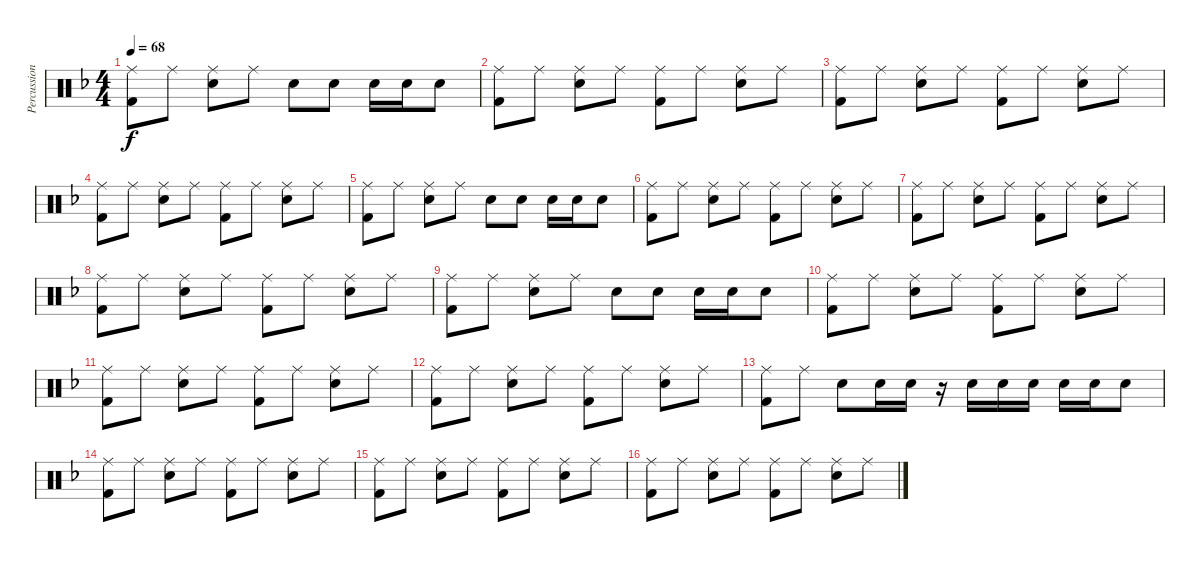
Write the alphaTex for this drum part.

\track ("Percussion" "Percussion") {instrument percussion}
\staff {score}
\articulation defaults
\ts (4 4)
\tempo 68
\clef neutral
\ks f
("Ride (middle)" "Kick (hit) 2").8{dy f} "Ride (middle)".8 ("Ride (middle)" "Snare (hit) 2").8 "Ride (middle)".8 "Snare (hit) 2".8 "Snare (hit) 2".8 "Snare (hit) 2".16 "Snare (hit) 2".16 "Snare (hit) 2".8 |
("Ride (middle)" "Kick (hit) 2").8 "Ride (middle)".8 ("Ride (middle)" "Snare (hit) 2").8 "Ride (middle)".8 ("Ride (middle)" "Kick (hit) 2").8 "Ride (middle)".8 ("Ride (middle)" "Snare (hit) 2").8 "Ride (middle)".8 |
("Ride (middle)" "Kick (hit) 2").8 "Ride (middle)".8 ("Ride (middle)" "Snare (hit) 2").8 "Ride (middle)".8 ("Ride (middle)" "Kick (hit) 2").8 "Ride (middle)".8 ("Ride (middle)" "Snare (hit) 2").8 "Ride (middle)".8 |
("Ride (middle)" "Kick (hit) 2").8 "Ride (middle)".8 ("Ride (middle)" "Snare (hit) 2").8 "Ride (middle)".8 ("Ride (middle)" "Kick (hit) 2").8 "Ride (middle)".8 ("Ride (middle)" "Snare (hit) 2").8 "Ride (middle)".8 |
("Ride (middle)" "Kick (hit) 2").8 "Ride (middle)".8 ("Ride (middle)" "Snare (hit) 2").8 "Ride (middle)".8 "Snare (hit) 2".8 "Snare (hit) 2".8 "Snare (hit) 2".16 "Snare (hit) 2".16 "Snare (hit) 2".8 |
("Ride (middle)" "Kick (hit) 2").8 "Ride (middle)".8 ("Ride (middle)" "Snare (hit) 2").8 "Ride (middle)".8 ("Ride (middle)" "Kick (hit) 2").8 "Ride (middle)".8 ("Ride (middle)" "Snare (hit) 2").8 "Ride (middle)".8 |
("Ride (middle)" "Kick (hit) 2").8 "Ride (middle)".8 ("Ride (middle)" "Snare (hit) 2").8 "Ride (middle)".8 ("Ride (middle)" "Kick (hit) 2").8 "Ride (middle)".8 ("Ride (middle)" "Snare (hit) 2").8 "Ride (middle)".8 |
("Ride (middle)" "Kick (hit) 2").8 "Ride (middle)".8 ("Ride (middle)" "Snare (hit) 2").8 "Ride (middle)".8 ("Ride (middle)" "Kick (hit) 2").8 "Ride (middle)".8 ("Ride (middle)" "Snare (hit) 2").8 "Ride (middle)".8 |
("Ride (middle)" "Kick (hit) 2").8 "Ride (middle)".8 ("Ride (middle)" "Snare (hit) 2").8 "Ride (middle)".8 "Snare (hit) 2".8 "Snare (hit) 2".8 "Snare (hit) 2".16 "Snare (hit) 2".16 "Snare (hit) 2".8 |
("Ride (middle)" "Kick (hit) 2").8 "Ride (middle)".8 ("Ride (middle)" "Snare (hit) 2").8 "Ride (middle)".8 ("Ride (middle)" "Kick (hit) 2").8 "Ride (middle)".8 ("Ride (middle)" "Snare (hit) 2").8 "Ride (middle)".8 |
("Ride (middle)" "Kick (hit) 2").8 "Ride (middle)".8 ("Ride (middle)" "Snare (hit) 2").8 "Ride (middle)".8 ("Ride (middle)" "Kick (hit) 2").8 "Ride (middle)".8 ("Ride (middle)" "Snare (hit) 2").8 "Ride (middle)".8 |
("Ride (middle)" "Kick (hit) 2").8 "Ride (middle)".8 ("Ride (middle)" "Snare (hit) 2").8 "Ride (middle)".8 ("Ride (middle)" "Kick (hit) 2").8 "Ride (middle)".8 ("Ride (middle)" "Snare (hit) 2").8 "Ride (middle)".8 |
("Ride (middle)" "Kick (hit) 2").8 "Ride (middle)".8 "Snare (hit) 2".8 "Snare (hit) 2".16 "Snare (hit) 2".16 r.16 "Snare (hit) 2".16 "Snare (hit) 2".16 "Snare (hit) 2".16 "Snare (hit) 2".16 "Snare (hit) 2".16 "Snare (hit) 2".8 |
("Ride (middle)" "Kick (hit) 2").8 "Ride (middle)".8 ("Ride (middle)" "Snare (hit) 2").8 "Ride (middle)".8 ("Ride (middle)" "Kick (hit) 2").8 "Ride (middle)".8 ("Ride (middle)" "Snare (hit) 2").8 "Ride (middle)".8 |
("Ride (middle)" "Kick (hit) 2").8 "Ride (middle)".8 ("Ride (middle)" "Snare (hit) 2").8 "Ride (middle)".8 ("Ride (middle)" "Kick (hit) 2").8 "Ride (middle)".8 ("Ride (middle)" "Snare (hit) 2").8 "Ride (middle)".8 |
("Ride (middle)" "Kick (hit) 2").8 "Ride (middle)".8 ("Ride (middle)" "Snare (hit) 2").8 "Ride (middle)".8 ("Ride (middle)" "Kick (hit) 2").8 "Ride (middle)".8 ("Ride (middle)" "Snare (hit) 2").8 "Ride (middle)".8
